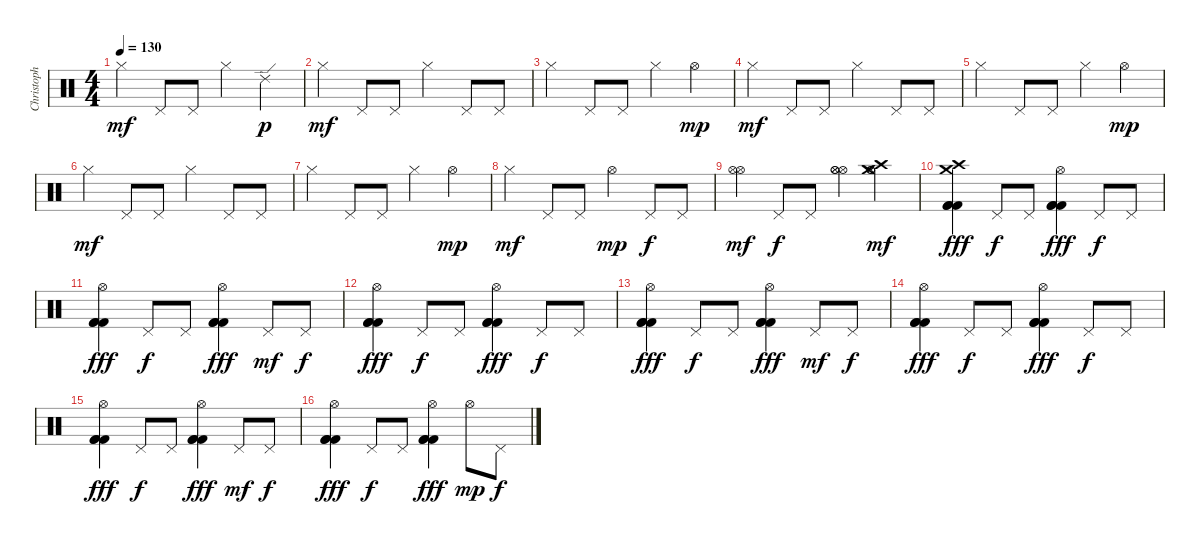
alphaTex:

\track ("Christoph Schneider" "Christoph ") {instrument percussion}
\staff {score}
\articulation defaults
\ts (4 4)
\tempo 130
\clef neutral
\ks c "Hi-Hat (closed)".4{dy mf} "Pedal Hi-Hat (hit)".8 "Pedal Hi-Hat (hit)".8 "Hi-Hat (closed)".4 "Ride (edge) 2".4{dy p}
|
"Hi-Hat (closed)".4{dy mf} "Pedal Hi-Hat (hit)".8 "Pedal Hi-Hat (hit)".8 "Hi-Hat (closed)".4 "Pedal Hi-Hat (hit)".8 "Pedal Hi-Hat (hit)".8 |
"Hi-Hat (closed)".4 "Pedal Hi-Hat (hit)".8 "Pedal Hi-Hat (hit)".8 "Hi-Hat (closed)".4 "Hi-Hat (open)".4{dy mp} |
"Hi-Hat (closed)".4{dy mf} "Pedal Hi-Hat (hit)".8 "Pedal Hi-Hat (hit)".8 "Hi-Hat (closed)".4 "Pedal Hi-Hat (hit)".8 "Pedal Hi-Hat (hit)".8 |
"Hi-Hat (closed)".4 "Pedal Hi-Hat (hit)".8 "Pedal Hi-Hat (hit)".8 "Hi-Hat (closed)".4 "Hi-Hat (open)".4{dy mp} |
"Hi-Hat (closed)".4{dy mf} "Pedal Hi-Hat (hit)".8 "Pedal Hi-Hat (hit)".8 "Hi-Hat (closed)".4 "Pedal Hi-Hat (hit)".8 "Pedal Hi-Hat (hit)".8 |
"Hi-Hat (closed)".4 "Pedal Hi-Hat (hit)".8 "Pedal Hi-Hat (hit)".8 "Hi-Hat (closed)".4 "Hi-Hat (open)".4{dy mp} |
"Hi-Hat (closed)".4{dy mf} "Pedal Hi-Hat (hit)".8 "Pedal Hi-Hat (hit)".8 "Hi-Hat (open)".4{dy mp} "Pedal Hi-Hat (hit)".8{dy f} "Pedal Hi-Hat (hit)".8 |
("Hi-Hat (open)" "Hi-Hat (open)").4{dy mf} "Pedal Hi-Hat (hit)".8{dy f} "Pedal Hi-Hat (hit)".8 ("Hi-Hat (open)" "Hi-Hat (open)" "Hi-Hat (open)").4 ("Crash medium (hit)" "Hi-Hat (open)" "Crash high (hit)" "Hi-Hat (open)").4{dy mf} |
("Crash medium (hit)" "Crash high (hit)" "Kick (hit) 2" "Kick (hit) 2" "Kick (hit) 2").4{dy fff} "Pedal Hi-Hat (hit)".8{dy f} "Pedal Hi-Hat (hit)".8 ("Hi-Hat (open)" "Kick (hit) 2" "Kick (hit) 2" "Kick (hit) 2").4{dy fff} "Pedal Hi-Hat (hit)".8{dy f} "Pedal Hi-Hat (hit)".8 |
("Hi-Hat (open)" "Kick (hit) 2" "Kick (hit) 2" "Kick (hit) 2").4{dy fff} "Pedal Hi-Hat (hit)".8{dy f} "Pedal Hi-Hat (hit)".8 ("Hi-Hat (open)" "Kick (hit) 2" "Kick (hit) 2" "Kick (hit) 2").4{dy fff} "Pedal Hi-Hat (hit)".8{dy mf} "Pedal Hi-Hat (hit)".8{dy f} |
("Hi-Hat (open)" "Kick (hit) 2" "Kick (hit) 2" "Kick (hit) 2").4{dy fff} "Pedal Hi-Hat (hit)".8{dy f} "Pedal Hi-Hat (hit)".8 ("Hi-Hat (open)" "Kick (hit) 2" "Kick (hit) 2" "Kick (hit) 2").4{dy fff} "Pedal Hi-Hat (hit)".8{dy f} "Pedal Hi-Hat (hit)".8 |
("Hi-Hat (open)" "Kick (hit) 2" "Kick (hit) 2" "Kick (hit) 2").4{dy fff} "Pedal Hi-Hat (hit)".8{dy f} "Pedal Hi-Hat (hit)".8 ("Hi-Hat (open)" "Kick (hit) 2" "Kick (hit) 2" "Kick (hit) 2").4{dy fff} "Pedal Hi-Hat (hit)".8{dy mf} "Pedal Hi-Hat (hit)".8{dy f} |
("Hi-Hat (open)" "Kick (hit) 2" "Kick (hit) 2" "Kick (hit) 2").4{dy fff} "Pedal Hi-Hat (hit)".8{dy f} "Pedal Hi-Hat (hit)".8 ("Hi-Hat (open)" "Kick (hit) 2" "Kick (hit) 2" "Kick (hit) 2").4{dy fff} "Pedal Hi-Hat (hit)".8{dy f} "Pedal Hi-Hat (hit)".8 |
("Hi-Hat (open)" "Kick (hit) 2" "Kick (hit) 2" "Kick (hit) 2").4{dy fff} "Pedal Hi-Hat (hit)".8{dy f} "Pedal Hi-Hat (hit)".8 ("Hi-Hat (open)" "Kick (hit) 2" "Kick (hit) 2" "Kick (hit) 2").4{dy fff} "Pedal Hi-Hat (hit)".8{dy mf} "Pedal Hi-Hat (hit)".8{dy f} |
("Hi-Hat (open)" "Kick (hit) 2" "Kick (hit) 2" "Kick (hit) 2").4{dy fff} "Pedal Hi-Hat (hit)".8{dy f} "Pedal Hi-Hat (hit)".8 ("Hi-Hat (open)" "Kick (hit) 2" "Kick (hit) 2" "Kick (hit) 2").4{dy fff} "Hi-Hat (open)".8{dy mp} "Pedal Hi-Hat (hit)".8{dy f}
